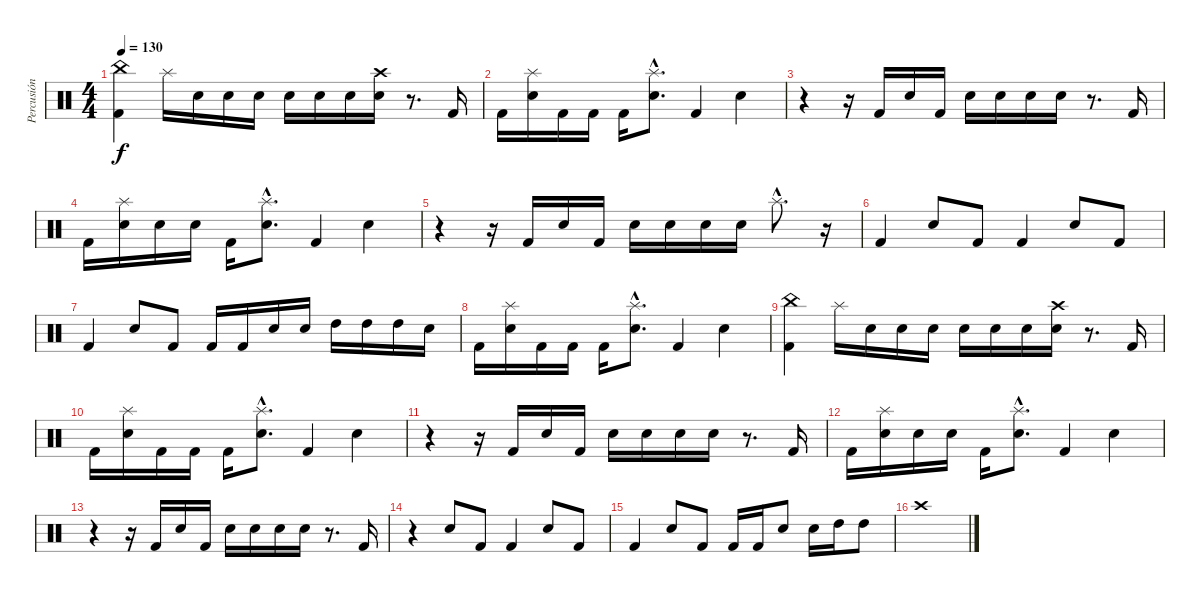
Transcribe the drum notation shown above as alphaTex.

\track ("Percusión" "Percusión") {instrument percussion}
\staff {score}
\articulation defaults
\ts (4 4)
\tempo 130
\clef neutral
\ks c
("China (hit)" "Kick (hit) 2").4{dy f} "Splash (hit)".16 "Electric Snare (hit)".16 "Electric Snare (hit)".16 "Electric Snare (hit)".16 "Electric Snare (hit)".16 "Electric Snare (hit)".16 "Electric Snare (hit)".16 ("Crash high (hit)" "Electric Snare (hit)").16 r.8{d} "Kick (hit) 2".16 |
"Kick (hit) 2".16 ("Splash (hit)" "Electric Snare (hit)").16 "Kick (hit) 2".16 "Kick (hit) 2".16 "Kick (hit) 2".16 ("Splash (hit)"{hac} "Electric Snare (hit)"{hac}).8{d} "Kick (hit) 2".4 "Electric Snare (hit)".4 |
r.4 r.16 "Kick (hit) 2".16 "Electric Snare (hit)".16 "Kick (hit) 2".16 "Electric Snare (hit)".16 "Electric Snare (hit)".16 "Electric Snare (hit)".16 "Electric Snare (hit)".16 r.8{d} "Kick (hit) 2".16 |
"Kick (hit) 2".16 ("Splash (hit)" "Electric Snare (hit)").16 "Electric Snare (hit)".16 "Electric Snare (hit)".16 "Kick (hit) 2".16 ("Splash (hit)"{hac} "Electric Snare (hit)"{hac}).8{d} "Kick (hit) 2".4 "Electric Snare (hit)".4 |
r.4 r.16 "Kick (hit) 2".16 "Electric Snare (hit)".16 "Kick (hit) 2".16 "Electric Snare (hit)".16 "Electric Snare (hit)".16 "Electric Snare (hit)".16 "Electric Snare (hit)".16 "Splash (hit)"{hac}.8{d} r.16 |
"Kick (hit) 2".4 "Electric Snare (hit)".8 "Kick (hit) 2".8 "Kick (hit) 2".4 "Electric Snare (hit)".8 "Kick (hit) 2".8 |
"Kick (hit) 2".4 "Electric Snare (hit)".8 "Kick (hit) 2".8 "Kick (hit) 2".16 "Kick (hit) 2".16 "Electric Snare (hit)".16 "Electric Snare (hit)".16 "High Tom (hit)".16 "High Tom (hit)".16 "High Tom (hit)".16 "Electric Snare (hit)".16 |
"Kick (hit) 2".16 ("Splash (hit)" "Electric Snare (hit)").16 "Kick (hit) 2".16 "Kick (hit) 2".16 "Kick (hit) 2".16 ("Splash (hit)"{hac} "Electric Snare (hit)"{hac}).8{d} "Kick (hit) 2".4 "Electric Snare (hit)".4 |
("China (hit)" "Kick (hit) 2").4 "Splash (hit)".16 "Electric Snare (hit)".16 "Electric Snare (hit)".16 "Electric Snare (hit)".16 "Electric Snare (hit)".16 "Electric Snare (hit)".16 "Electric Snare (hit)".16 ("Crash high (hit)" "Electric Snare (hit)").16 r.8{d} "Kick (hit) 2".16 |
"Kick (hit) 2".16 ("Splash (hit)" "Electric Snare (hit)").16 "Kick (hit) 2".16 "Kick (hit) 2".16 "Kick (hit) 2".16 ("Splash (hit)"{hac} "Electric Snare (hit)"{hac}).8{d} "Kick (hit) 2".4 "Electric Snare (hit)".4 |
r.4 r.16 "Kick (hit) 2".16 "Electric Snare (hit)".16 "Kick (hit) 2".16 "Electric Snare (hit)".16 "Electric Snare (hit)".16 "Electric Snare (hit)".16 "Electric Snare (hit)".16 r.8{d} "Kick (hit) 2".16 |
"Kick (hit) 2".16 ("Splash (hit)" "Electric Snare (hit)").16 "Electric Snare (hit)".16 "Electric Snare (hit)".16 "Kick (hit) 2".16 ("Splash (hit)"{hac} "Electric Snare (hit)"{hac}).8{d} "Kick (hit) 2".4 "Electric Snare (hit)".4 |
r.4 r.16 "Kick (hit) 2".16 "Electric Snare (hit)".16 "Kick (hit) 2".16 "Electric Snare (hit)".16 "Electric Snare (hit)".16 "Electric Snare (hit)".16 "Electric Snare (hit)".16 r.8{d} "Kick (hit) 2".16 |
r.4 "Electric Snare (hit)".8 "Kick (hit) 2".8 "Kick (hit) 2".4 "Electric Snare (hit)".8 "Kick (hit) 2".8 |
"Kick (hit) 2".4 "Electric Snare (hit)".8 "Kick (hit) 2".8 "Kick (hit) 2".16 "Kick (hit) 2".16 "Electric Snare (hit)".8 "Electric Snare (hit)".16 "High Tom (hit)".16 "High Tom (hit)".8 |
"Crash high (hit)".1
